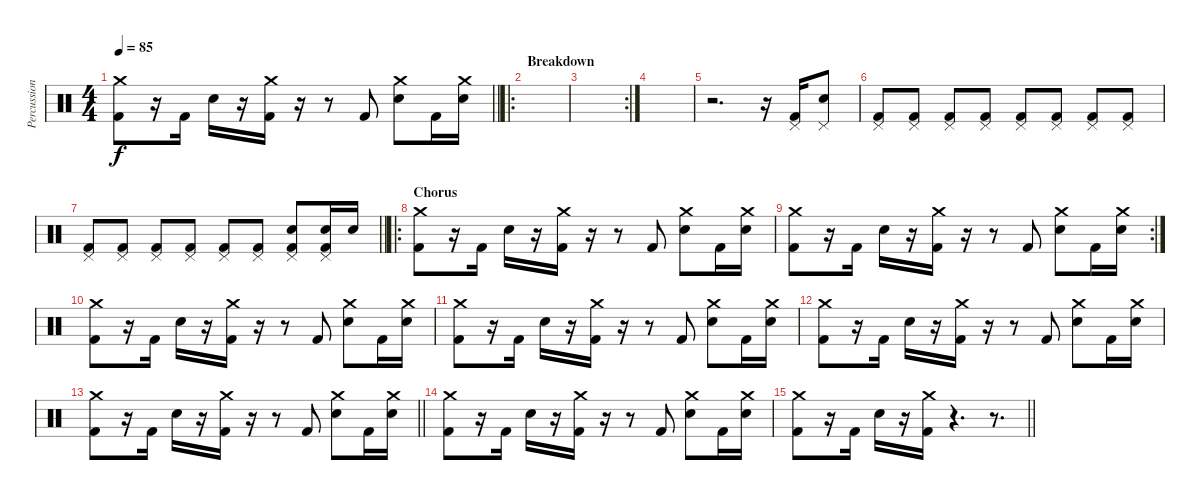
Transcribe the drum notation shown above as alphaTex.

\track ("Percussion (N. Sanderson)" "Percussion") {instrument percussion}
\staff {score}
\articulation defaults
\ts (4 4)
\tempo 85
\clef neutral
\barLineRight lightlight
\ks c
("Crash medium (hit)" "Kick (hit) 2").8{dy f} r.16 "Kick (hit) 2".16 "Electric Snare (hit)".16 r.16 ("Crash medium (hit)" "Kick (hit) 2").16 r.16 r.8 "Kick (hit) 2".8 ("Crash medium (hit)" "Electric Snare (hit)").8 "Kick (hit) 2".16 ("Crash medium (hit)" "Electric Snare (hit)").16 |
\ro
\section ("" "Breakdown")
|
\rc 2
|
|
r.2{d} r.16 ("Pedal Hi-Hat (hit)" "Kick (hit) 2").16 ("Pedal Hi-Hat (hit)" "Electric Snare (hit)").8 |
("Pedal Hi-Hat (hit)" "Kick (hit) 2").8 ("Pedal Hi-Hat (hit)" "Kick (hit) 2").8 ("Pedal Hi-Hat (hit)" "Kick (hit) 2").8 ("Pedal Hi-Hat (hit)" "Kick (hit) 2").8 ("Pedal Hi-Hat (hit)" "Kick (hit) 2").8 ("Pedal Hi-Hat (hit)" "Kick (hit) 2").8 ("Pedal Hi-Hat (hit)" "Kick (hit) 2").8 ("Pedal Hi-Hat (hit)" "Kick (hit) 2").8 |
\barLineRight lightlight
("Pedal Hi-Hat (hit)" "Kick (hit) 2").8 ("Pedal Hi-Hat (hit)" "Kick (hit) 2").8 ("Pedal Hi-Hat (hit)" "Kick (hit) 2").8 ("Pedal Hi-Hat (hit)" "Kick (hit) 2").8 ("Pedal Hi-Hat (hit)" "Kick (hit) 2").8 ("Pedal Hi-Hat (hit)" "Kick (hit) 2").8 ("Pedal Hi-Hat (hit)" "Electric Snare (hit)" "Kick (hit) 2").8 ("Pedal Hi-Hat (hit)" "Electric Snare (hit)" "Kick (hit) 2").16 "Electric Snare (hit)".16 |
\ro
\section ("" "Chorus")
("Crash medium (hit)" "Kick (hit) 2").8 r.16 "Kick (hit) 2".16 "Electric Snare (hit)".16 r.16 ("Crash medium (hit)" "Kick (hit) 2").16 r.16 r.8 "Kick (hit) 2".8 ("Crash medium (hit)" "Electric Snare (hit)").8 "Kick (hit) 2".16 ("Crash medium (hit)" "Electric Snare (hit)").16 |
\rc 2
("Crash medium (hit)" "Kick (hit) 2").8 r.16 "Kick (hit) 2".16 "Electric Snare (hit)".16 r.16 ("Crash medium (hit)" "Kick (hit) 2").16 r.16 r.8 "Kick (hit) 2".8 ("Crash medium (hit)" "Electric Snare (hit)").8 "Kick (hit) 2".16 ("Crash medium (hit)" "Electric Snare (hit)").16 |
("Crash medium (hit)" "Kick (hit) 2").8 r.16 "Kick (hit) 2".16 "Electric Snare (hit)".16 r.16 ("Crash medium (hit)" "Kick (hit) 2").16 r.16 r.8 "Kick (hit) 2".8 ("Crash medium (hit)" "Electric Snare (hit)").8 "Kick (hit) 2".16 ("Crash medium (hit)" "Electric Snare (hit)").16 |
("Crash medium (hit)" "Kick (hit) 2").8 r.16 "Kick (hit) 2".16 "Electric Snare (hit)".16 r.16 ("Crash medium (hit)" "Kick (hit) 2").16 r.16 r.8 "Kick (hit) 2".8 ("Crash medium (hit)" "Electric Snare (hit)").8 "Kick (hit) 2".16 ("Crash medium (hit)" "Electric Snare (hit)").16 |
("Crash medium (hit)" "Kick (hit) 2").8 r.16 "Kick (hit) 2".16 "Electric Snare (hit)".16 r.16 ("Crash medium (hit)" "Kick (hit) 2").16 r.16 r.8 "Kick (hit) 2".8 ("Crash medium (hit)" "Electric Snare (hit)").8 "Kick (hit) 2".16 ("Crash medium (hit)" "Electric Snare (hit)").16 |
\barLineRight lightlight
("Crash medium (hit)" "Kick (hit) 2").8 r.16 "Kick (hit) 2".16 "Electric Snare (hit)".16 r.16 ("Crash medium (hit)" "Kick (hit) 2").16 r.16 r.8 "Kick (hit) 2".8 ("Crash medium (hit)" "Electric Snare (hit)").8 "Kick (hit) 2".16 ("Crash medium (hit)" "Electric Snare (hit)").16 |
("Crash medium (hit)" "Kick (hit) 2").8 r.16 "Kick (hit) 2".16 "Electric Snare (hit)".16 r.16 ("Crash medium (hit)" "Kick (hit) 2").16 r.16 r.8 "Kick (hit) 2".8 ("Crash medium (hit)" "Electric Snare (hit)").8 "Kick (hit) 2".16 ("Crash medium (hit)" "Electric Snare (hit)").16 |
\barLineRight lightlight
("Crash medium (hit)" "Kick (hit) 2").8 r.16 "Kick (hit) 2".16 "Electric Snare (hit)".16 r.16 ("Crash medium (hit)" "Kick (hit) 2").16 r.4{d} r.8{d}
